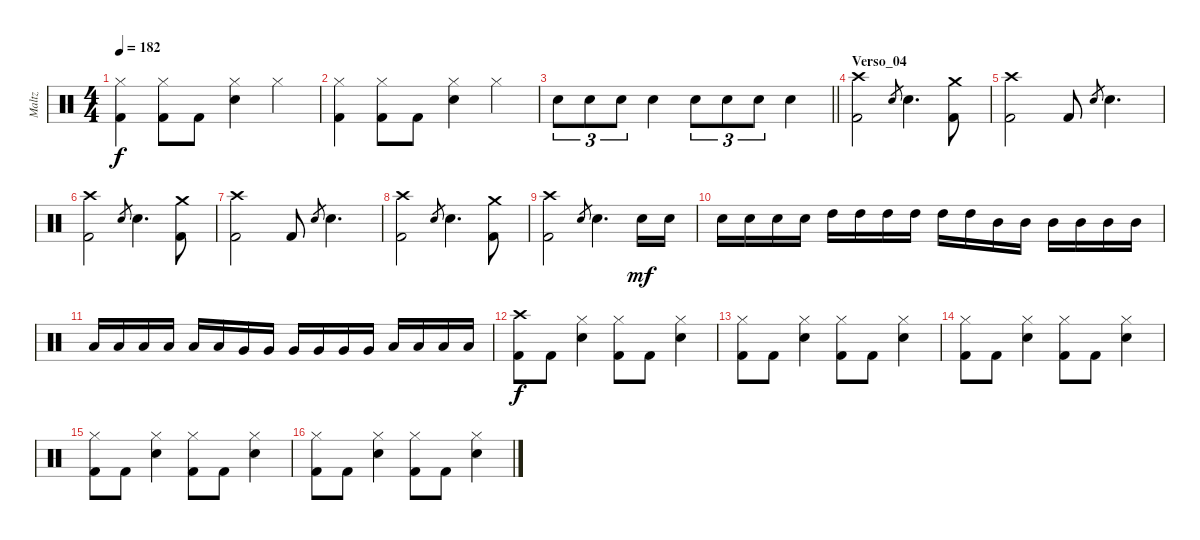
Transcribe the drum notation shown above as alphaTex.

\track ("Maltz" "Maltz") {instrument percussion}
\staff {score}
\articulation defaults
\ts (4 4)
\tempo 182
\clef neutral
\ks c
("Hi-Hat (closed)" "Kick (hit) 2").4{dy f} ("Hi-Hat (closed)" "Kick (hit) 2").8 "Kick (hit) 2".8 ("Hi-Hat (closed)" "Electric Snare (hit)").4 "Hi-Hat (closed)".4 |
("Hi-Hat (closed)" "Kick (hit) 2").4 ("Hi-Hat (closed)" "Kick (hit) 2").8 "Kick (hit) 2".8 ("Hi-Hat (closed)" "Electric Snare (hit)").4 "Hi-Hat (closed)".4 |
\barLineRight lightlight "Electric Snare (hit)".8{tu (3 2)} "Electric Snare (hit)".8{tu (3 2)} "Electric Snare (hit)".8{tu (3 2)} "Electric Snare (hit)".4 "Electric Snare (hit)".8{tu (3 2)} "Electric Snare (hit)".8{tu (3 2)} "Electric Snare (hit)".8{tu (3 2)} "Electric Snare (hit)".4
|
\section ("" "Verso_04")
("Crash high (hit)" "Kick (hit) 2").2 "Electric Snare (hit)".8{gr} "Electric Snare (hit)".4{d} ("Crash medium (hit)" "Kick (hit) 2").8 |
("Crash high (hit)" "Kick (hit) 2").2 "Kick (hit) 2".8 "Electric Snare (hit)".8{gr} "Electric Snare (hit)".4{d} |
("Crash high (hit)" "Kick (hit) 2").2 "Electric Snare (hit)".8{gr} "Electric Snare (hit)".4{d} ("Crash medium (hit)" "Kick (hit) 2").8 |
("Crash high (hit)" "Kick (hit) 2").2 "Kick (hit) 2".8 "Electric Snare (hit)".8{gr} "Electric Snare (hit)".4{d} |
("Crash high (hit)" "Kick (hit) 2").2 "Electric Snare (hit)".8{gr} "Electric Snare (hit)".4{d} ("Crash medium (hit)" "Kick (hit) 2").8 |
("Crash high (hit)" "Kick (hit) 2").2 "Electric Snare (hit)".8{gr} "Electric Snare (hit)".4{d} "Electric Snare (hit)".16{dy mf} "Electric Snare (hit)".16 |
"Electric Snare (hit)".16 "Electric Snare (hit)".16 "Electric Snare (hit)".16 "Electric Snare (hit)".16 "High Tom (hit)".16 "High Tom (hit)".16 "High Tom (hit)".16 "High Tom (hit)".16 "High Tom (hit)".16 "High Tom (hit)".16 "Mid Tom (hit)".16 "Mid Tom (hit)".16 "Mid Tom (hit)".16 "Mid Tom (hit)".16 "Mid Tom (hit)".16 "Mid Tom (hit)".16 |
"Low Tom (hit)".16 "Low Tom (hit)".16 "Low Tom (hit)".16 "Low Tom (hit)".16 "Low Tom (hit)".16 "Low Tom (hit)".16 "Very Low Tom (hit)".16 "Very Low Tom (hit)".16 "Very Low Tom (hit)".16 "Very Low Tom (hit)".16 "Very Low Tom (hit)".16 "Very Low Tom (hit)".16 "Low Floor Tom (hit)".16 "Low Floor Tom (hit)".16 "Low Floor Tom (hit)".16 "Low Floor Tom (hit)".16 |
("Crash high (hit)" "Kick (hit) 2").8{dy f} "Kick (hit) 2".8 ("Hi-Hat (closed)" "Electric Snare (hit)").4 ("Hi-Hat (closed)" "Kick (hit) 2").8 "Kick (hit) 2".8 ("Hi-Hat (closed)" "Electric Snare (hit)").4 |
("Hi-Hat (closed)" "Kick (hit) 2").8 "Kick (hit) 2".8 ("Hi-Hat (closed)" "Electric Snare (hit)").4 ("Hi-Hat (closed)" "Kick (hit) 2").8 "Kick (hit) 2".8 ("Hi-Hat (closed)" "Electric Snare (hit)").4 |
("Hi-Hat (closed)" "Kick (hit) 2").8 "Kick (hit) 2".8 ("Hi-Hat (closed)" "Electric Snare (hit)").4 ("Hi-Hat (closed)" "Kick (hit) 2").8 "Kick (hit) 2".8 ("Hi-Hat (closed)" "Electric Snare (hit)").4 |
("Hi-Hat (closed)" "Kick (hit) 2").8 "Kick (hit) 2".8 ("Hi-Hat (closed)" "Electric Snare (hit)").4 ("Hi-Hat (closed)" "Kick (hit) 2").8 "Kick (hit) 2".8 ("Hi-Hat (closed)" "Electric Snare (hit)").4 |
("Hi-Hat (closed)" "Kick (hit) 2").8 "Kick (hit) 2".8 ("Hi-Hat (closed)" "Electric Snare (hit)").4 ("Hi-Hat (closed)" "Kick (hit) 2").8 "Kick (hit) 2".8 ("Hi-Hat (closed)" "Electric Snare (hit)").4
